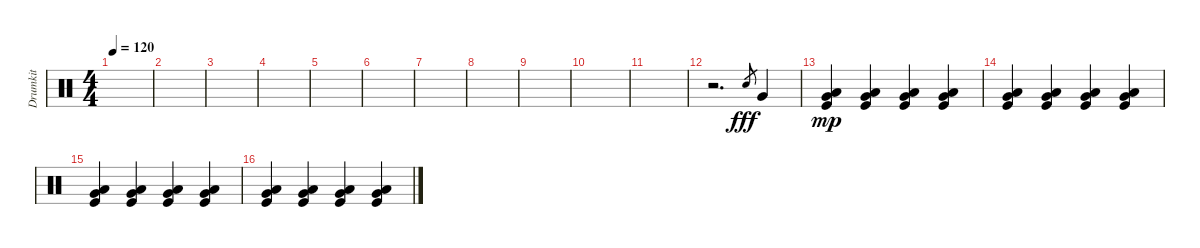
\track ("Drumkit" "Drumkit") {instrument percussion}
\staff {score}
\articulation defaults
\ts (4 4)
\tempo 120
\clef neutral
\ks c
|
|
|
|
|
|
|
|
|
|
|
r.2{d} "Snare (hit)".8{gr dy fff} "Very Low Tom (hit)".4 |
("Very Low Tom (hit)" "Kick (hit)" "Low Tom (hit)").4{dy mp} ("Kick (hit)" "Very Low Tom (hit)" "Low Tom (hit)").4 ("Kick (hit)" "Very Low Tom (hit)" "Low Tom (hit)").4 ("Kick (hit)" "Very Low Tom (hit)" "Low Tom (hit)").4 |
("Very Low Tom (hit)" "Kick (hit)" "Low Tom (hit)").4 ("Kick (hit)" "Low Tom (hit)" "Very Low Tom (hit)").4 ("Kick (hit)" "Low Tom (hit)" "Very Low Tom (hit)").4 ("Kick (hit)" "Very Low Tom (hit)" "Low Tom (hit)").4 |
("Very Low Tom (hit)" "Kick (hit)" "Low Tom (hit)").4 ("Kick (hit)" "Very Low Tom (hit)" "Low Tom (hit)").4 ("Kick (hit)" "Very Low Tom (hit)" "Low Tom (hit)").4 ("Kick (hit)" "Very Low Tom (hit)" "Low Tom (hit)").4 |
("Very Low Tom (hit)" "Kick (hit)" "Low Tom (hit)").4 ("Kick (hit)" "Low Tom (hit)" "Very Low Tom (hit)").4 ("Kick (hit)" "Low Tom (hit)" "Very Low Tom (hit)").4 ("Kick (hit)" "Very Low Tom (hit)" "Low Tom (hit)").4
